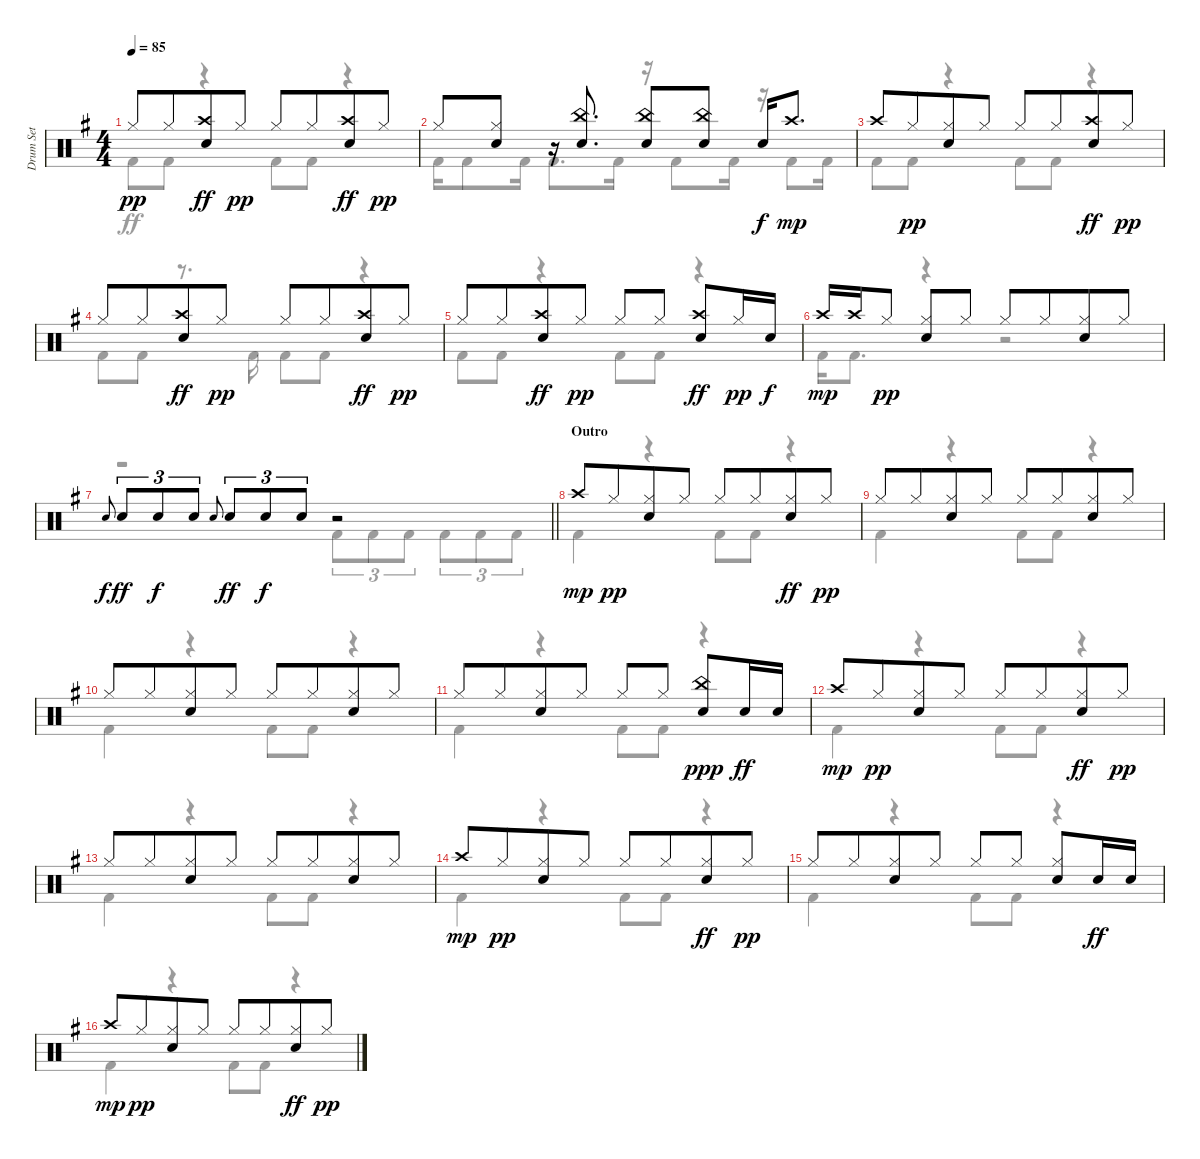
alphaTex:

\track ("Drum Set" "Drum Set") {instrument percussion}
\staff {score}
\articulation defaults
\voice
\ts (4 4)
\tempo 85
\clef neutral
\ks g "Hi-Hat (closed)".8{dy pp} "Hi-Hat (closed)".8{beam merge}
("Crash high (hit)" "Electric Snare (hit)").8{dy ff} "Hi-Hat (closed)".8{dy pp} "Hi-Hat (closed)".8 "Hi-Hat (closed)".8{beam merge} ("Crash high (hit)" "Electric Snare (hit)").8{dy ff} "Hi-Hat (closed)".8{dy pp} |
"Hi-Hat (closed)".8 ("Electric Snare (hit)" "Hi-Hat (closed)").8 r.16 ("Electric Snare (hit)" "China (hit)").8{d} ("Electric Snare (hit)" "China (hit)").8 ("Electric Snare (hit)" "China (hit)").8 "Electric Snare (hit)".16{dy f} "Crash high (hit)".8{d dy mp} |
"Crash high (hit)".8 "Hi-Hat (closed)".8{dy pp beam merge} ("Hi-Hat (closed)" "Electric Snare (hit)").8 "Hi-Hat (closed)".8 "Hi-Hat (closed)".8 "Hi-Hat (closed)".8{beam merge} ("Crash high (hit)" "Electric Snare (hit)").8{dy ff} "Hi-Hat (closed)".8{dy pp} |
"Hi-Hat (closed)".8 "Hi-Hat (closed)".8{beam merge} ("Crash high (hit)" "Electric Snare (hit)").8{dy ff} "Hi-Hat (closed)".8{dy pp} "Hi-Hat (closed)".8 "Hi-Hat (closed)".8{beam merge} ("Crash high (hit)" "Electric Snare (hit)").8{dy ff} "Hi-Hat (closed)".8{dy pp} |
"Hi-Hat (closed)".8 "Hi-Hat (closed)".8{beam merge} ("Crash high (hit)" "Electric Snare (hit)").8{dy ff} "Hi-Hat (closed)".8{dy pp} "Hi-Hat (closed)".8 "Hi-Hat (closed)".8 ("Crash high (hit)" "Electric Snare (hit)").8{dy ff} "Hi-Hat (closed)".16{dy pp} "Electric Snare (hit)".16{dy f} |
"Crash high (hit)".16{dy mp} "Crash high (hit)".16 "Hi-Hat (closed)".8{dy pp} ("Hi-Hat (closed)" "Electric Snare (hit)").8 "Hi-Hat (closed)".8 "Hi-Hat (closed)".8 "Hi-Hat (closed)".8{beam merge} ("Hi-Hat (closed)" "Electric Snare (hit)").8 "Hi-Hat (closed)".8 |
\barLineRight lightlight "Electric Snare (hit)".8{gr onbeat dy f} "Electric Snare (hit)".8{tu (3 2) dy ff} "Electric Snare (hit)".8{tu (3 2) dy f} "Electric Snare (hit)".8{tu (3 2)} "Electric Snare (hit)".8{gr onbeat} "Electric Snare (hit)".8{tu (3 2) dy ff} "Electric Snare (hit)".8{tu (3 2) dy f} "Electric Snare (hit)".8{tu (3 2)}
r.2 |
\section ("" "Outro")
"Crash high (hit)".8{dy mp} "Hi-Hat (closed)".8{dy pp beam merge} ("Hi-Hat (closed)" "Electric Snare (hit)").8 "Hi-Hat (closed)".8 "Hi-Hat (closed)".8 "Hi-Hat (closed)".8{beam merge} ("Hi-Hat (closed)" "Electric Snare (hit)").8{dy ff} "Hi-Hat (closed)".8{dy pp} |
"Hi-Hat (closed)".8 "Hi-Hat (closed)".8{beam merge} ("Hi-Hat (closed)" "Electric Snare (hit)").8 "Hi-Hat (closed)".8 "Hi-Hat (closed)".8 "Hi-Hat (closed)".8{beam merge} ("Hi-Hat (closed)" "Electric Snare (hit)").8 "Hi-Hat (closed)".8 |
"Hi-Hat (closed)".8 "Hi-Hat (closed)".8{beam merge} ("Hi-Hat (closed)" "Electric Snare (hit)").8 "Hi-Hat (closed)".8 "Hi-Hat (closed)".8 "Hi-Hat (closed)".8{beam merge} ("Hi-Hat (closed)" "Electric Snare (hit)").8 "Hi-Hat (closed)".8 |
"Hi-Hat (closed)".8 "Hi-Hat (closed)".8{beam merge} ("Hi-Hat (closed)" "Electric Snare (hit)").8 "Hi-Hat (closed)".8 "Hi-Hat (closed)".8 "Hi-Hat (closed)".8 ("China (hit)" "Electric Snare (hit)").8{dy ppp} "Electric Snare (hit)".16{dy ff} "Electric Snare (hit)".16 |
"Crash high (hit)".8{dy mp} "Hi-Hat (closed)".8{dy pp beam merge} ("Hi-Hat (closed)" "Electric Snare (hit)").8 "Hi-Hat (closed)".8 "Hi-Hat (closed)".8 "Hi-Hat (closed)".8{beam merge} ("Hi-Hat (closed)" "Electric Snare (hit)").8{dy ff} "Hi-Hat (closed)".8{dy pp} |
"Hi-Hat (closed)".8 "Hi-Hat (closed)".8{beam merge} ("Hi-Hat (closed)" "Electric Snare (hit)").8 "Hi-Hat (closed)".8 "Hi-Hat (closed)".8 "Hi-Hat (closed)".8{beam merge} ("Hi-Hat (closed)" "Electric Snare (hit)").8 "Hi-Hat (closed)".8 |
"Crash high (hit)".8{dy mp} "Hi-Hat (closed)".8{dy pp beam merge} ("Hi-Hat (closed)" "Electric Snare (hit)").8 "Hi-Hat (closed)".8 "Hi-Hat (closed)".8 "Hi-Hat (closed)".8{beam merge} ("Hi-Hat (closed)" "Electric Snare (hit)").8{dy ff} "Hi-Hat (closed)".8{dy pp} |
"Hi-Hat (closed)".8 "Hi-Hat (closed)".8{beam merge} ("Hi-Hat (closed)" "Electric Snare (hit)").8 "Hi-Hat (closed)".8 "Hi-Hat (closed)".8 "Hi-Hat (closed)".8 ("Hi-Hat (closed)" "Electric Snare (hit)").8 "Electric Snare (hit)".16{dy ff} "Electric Snare (hit)".16 |
"Crash high (hit)".8{dy mp} "Hi-Hat (closed)".8{dy pp beam merge} ("Hi-Hat (closed)" "Electric Snare (hit)").8 "Hi-Hat (closed)".8 "Hi-Hat (closed)".8 "Hi-Hat (closed)".8{beam merge} ("Hi-Hat (closed)" "Electric Snare (hit)").8{dy ff} "Hi-Hat (closed)".8{dy pp}
\voice
\clef neutral
\ottava regular
\simile none
\ks g "Kick (hit) 2".8{dy ff} "Kick (hit) 2".8
r.4 "Kick (hit) 2".8 "Kick (hit) 2".8 r.4 |
"Kick (hit) 2".16 "Kick (hit) 2".8 "Kick (hit) 2".16 "Kick (hit) 2".8{d} "Kick (hit) 2".16 r.16 "Kick (hit) 2".8 "Kick (hit) 2".16 r.16 "Kick (hit) 2".8 "Kick (hit) 2".16 |
"Kick (hit) 2".8 "Kick (hit) 2".8 r.4 "Kick (hit) 2".8 "Kick (hit) 2".8 r.4 |
"Kick (hit) 2".8 "Kick (hit) 2".8 r.8{d} "Kick (hit) 2".16 "Kick (hit) 2".8 "Kick (hit) 2".8 r.4 |
"Kick (hit) 2".8 "Kick (hit) 2".8 r.4 "Kick (hit) 2".8 "Kick (hit) 2".8 r.4 |
"Kick (hit) 2".16 "Kick (hit) 2".8{d} r.4 r.2 |
\barLineRight lightlight
r.2 "Kick (hit) 2".8{tu (3 2)} "Kick (hit) 2".8{tu (3 2)} "Kick (hit) 2".8{tu (3 2)} "Kick (hit) 2".8{tu (3 2)} "Kick (hit) 2".8{tu (3 2)} "Kick (hit) 2".8{tu (3 2)} |
"Kick (hit) 2".4 r.4 "Kick (hit) 2".8 "Kick (hit) 2".8 r.4 |
"Kick (hit) 2".4 r.4 "Kick (hit) 2".8 "Kick (hit) 2".8 r.4 |
"Kick (hit) 2".4 r.4 "Kick (hit) 2".8 "Kick (hit) 2".8 r.4 |
"Kick (hit) 2".4 r.4 "Kick (hit) 2".8 "Kick (hit) 2".8 r.4 |
"Kick (hit) 2".4 r.4 "Kick (hit) 2".8 "Kick (hit) 2".8 r.4 |
"Kick (hit) 2".4 r.4 "Kick (hit) 2".8 "Kick (hit) 2".8 r.4 |
"Kick (hit) 2".4 r.4 "Kick (hit) 2".8 "Kick (hit) 2".8 r.4 |
"Kick (hit) 2".4 r.4 "Kick (hit) 2".8 "Kick (hit) 2".8 r.4 |
"Kick (hit) 2".4 r.4 "Kick (hit) 2".8 "Kick (hit) 2".8 r.4
